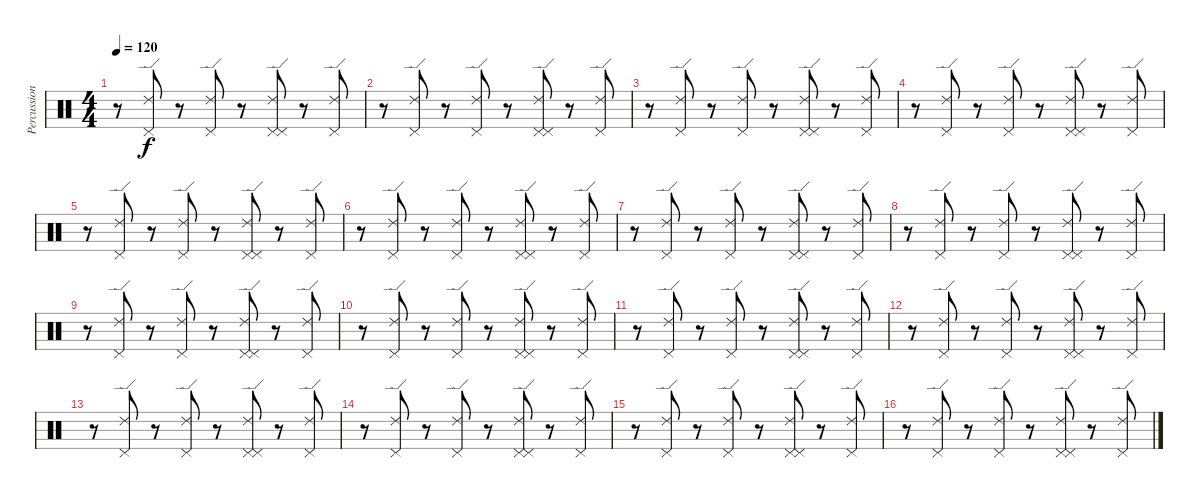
\track ("Percussion" "Percussion") {instrument percussion}
\staff {score}
\articulation defaults
\ts (4 4)
\tempo 120
\clef neutral
\ks c
r.8{dy f} ("Pedal Hi-Hat (hit)" "Ride (edge) 2").8 r.8 ("Pedal Hi-Hat (hit)" "Ride (edge) 2").8 r.8 ("Pedal Hi-Hat (hit)" "Pedal Hi-Hat (hit)" "Ride (edge) 2").8 r.8 ("Pedal Hi-Hat (hit)" "Ride (edge) 2").8 |
r.8 ("Pedal Hi-Hat (hit)" "Ride (edge) 2").8 r.8 ("Pedal Hi-Hat (hit)" "Ride (edge) 2").8 r.8 ("Pedal Hi-Hat (hit)" "Pedal Hi-Hat (hit)" "Ride (edge) 2").8 r.8 ("Pedal Hi-Hat (hit)" "Ride (edge) 2").8 |
r.8 ("Pedal Hi-Hat (hit)" "Ride (edge) 2").8 r.8 ("Pedal Hi-Hat (hit)" "Ride (edge) 2").8 r.8 ("Pedal Hi-Hat (hit)" "Pedal Hi-Hat (hit)" "Ride (edge) 2").8 r.8 ("Pedal Hi-Hat (hit)" "Ride (edge) 2").8 |
r.8 ("Pedal Hi-Hat (hit)" "Ride (edge) 2").8 r.8 ("Pedal Hi-Hat (hit)" "Ride (edge) 2").8 r.8 ("Pedal Hi-Hat (hit)" "Pedal Hi-Hat (hit)" "Ride (edge) 2").8 r.8 ("Pedal Hi-Hat (hit)" "Ride (edge) 2").8 |
r.8 ("Pedal Hi-Hat (hit)" "Ride (edge) 2").8 r.8 ("Pedal Hi-Hat (hit)" "Ride (edge) 2").8 r.8 ("Pedal Hi-Hat (hit)" "Pedal Hi-Hat (hit)" "Ride (edge) 2").8 r.8 ("Pedal Hi-Hat (hit)" "Ride (edge) 2").8 |
r.8 ("Pedal Hi-Hat (hit)" "Ride (edge) 2").8 r.8 ("Pedal Hi-Hat (hit)" "Ride (edge) 2").8 r.8 ("Pedal Hi-Hat (hit)" "Pedal Hi-Hat (hit)" "Ride (edge) 2").8 r.8 ("Pedal Hi-Hat (hit)" "Ride (edge) 2").8 |
r.8 ("Pedal Hi-Hat (hit)" "Ride (edge) 2").8 r.8 ("Pedal Hi-Hat (hit)" "Ride (edge) 2").8 r.8 ("Pedal Hi-Hat (hit)" "Pedal Hi-Hat (hit)" "Ride (edge) 2").8 r.8 ("Pedal Hi-Hat (hit)" "Ride (edge) 2").8 |
r.8 ("Pedal Hi-Hat (hit)" "Ride (edge) 2").8 r.8 ("Pedal Hi-Hat (hit)" "Ride (edge) 2").8 r.8 ("Pedal Hi-Hat (hit)" "Pedal Hi-Hat (hit)" "Ride (edge) 2").8 r.8 ("Pedal Hi-Hat (hit)" "Ride (edge) 2").8 |
r.8 ("Pedal Hi-Hat (hit)" "Ride (edge) 2").8 r.8 ("Pedal Hi-Hat (hit)" "Ride (edge) 2").8 r.8 ("Pedal Hi-Hat (hit)" "Pedal Hi-Hat (hit)" "Ride (edge) 2").8 r.8 ("Pedal Hi-Hat (hit)" "Ride (edge) 2").8 |
r.8 ("Pedal Hi-Hat (hit)" "Ride (edge) 2").8 r.8 ("Pedal Hi-Hat (hit)" "Ride (edge) 2").8 r.8 ("Pedal Hi-Hat (hit)" "Pedal Hi-Hat (hit)" "Ride (edge) 2").8 r.8 ("Pedal Hi-Hat (hit)" "Ride (edge) 2").8 |
r.8 ("Pedal Hi-Hat (hit)" "Ride (edge) 2").8 r.8 ("Pedal Hi-Hat (hit)" "Ride (edge) 2").8 r.8 ("Pedal Hi-Hat (hit)" "Pedal Hi-Hat (hit)" "Ride (edge) 2").8 r.8 ("Pedal Hi-Hat (hit)" "Ride (edge) 2").8 |
r.8 ("Pedal Hi-Hat (hit)" "Ride (edge) 2").8 r.8 ("Pedal Hi-Hat (hit)" "Ride (edge) 2").8 r.8 ("Pedal Hi-Hat (hit)" "Pedal Hi-Hat (hit)" "Ride (edge) 2").8 r.8 ("Pedal Hi-Hat (hit)" "Ride (edge) 2").8 |
r.8 ("Pedal Hi-Hat (hit)" "Ride (edge) 2").8 r.8 ("Pedal Hi-Hat (hit)" "Ride (edge) 2").8 r.8 ("Pedal Hi-Hat (hit)" "Pedal Hi-Hat (hit)" "Ride (edge) 2").8 r.8 ("Pedal Hi-Hat (hit)" "Ride (edge) 2").8 |
r.8 ("Pedal Hi-Hat (hit)" "Ride (edge) 2").8 r.8 ("Pedal Hi-Hat (hit)" "Ride (edge) 2").8 r.8 ("Pedal Hi-Hat (hit)" "Pedal Hi-Hat (hit)" "Ride (edge) 2").8 r.8 ("Pedal Hi-Hat (hit)" "Ride (edge) 2").8 |
r.8 ("Pedal Hi-Hat (hit)" "Ride (edge) 2").8 r.8 ("Pedal Hi-Hat (hit)" "Ride (edge) 2").8 r.8 ("Pedal Hi-Hat (hit)" "Pedal Hi-Hat (hit)" "Ride (edge) 2").8 r.8 ("Pedal Hi-Hat (hit)" "Ride (edge) 2").8 |
r.8 ("Pedal Hi-Hat (hit)" "Ride (edge) 2").8 r.8 ("Pedal Hi-Hat (hit)" "Ride (edge) 2").8 r.8 ("Pedal Hi-Hat (hit)" "Pedal Hi-Hat (hit)" "Ride (edge) 2").8 r.8 ("Pedal Hi-Hat (hit)" "Ride (edge) 2").8
